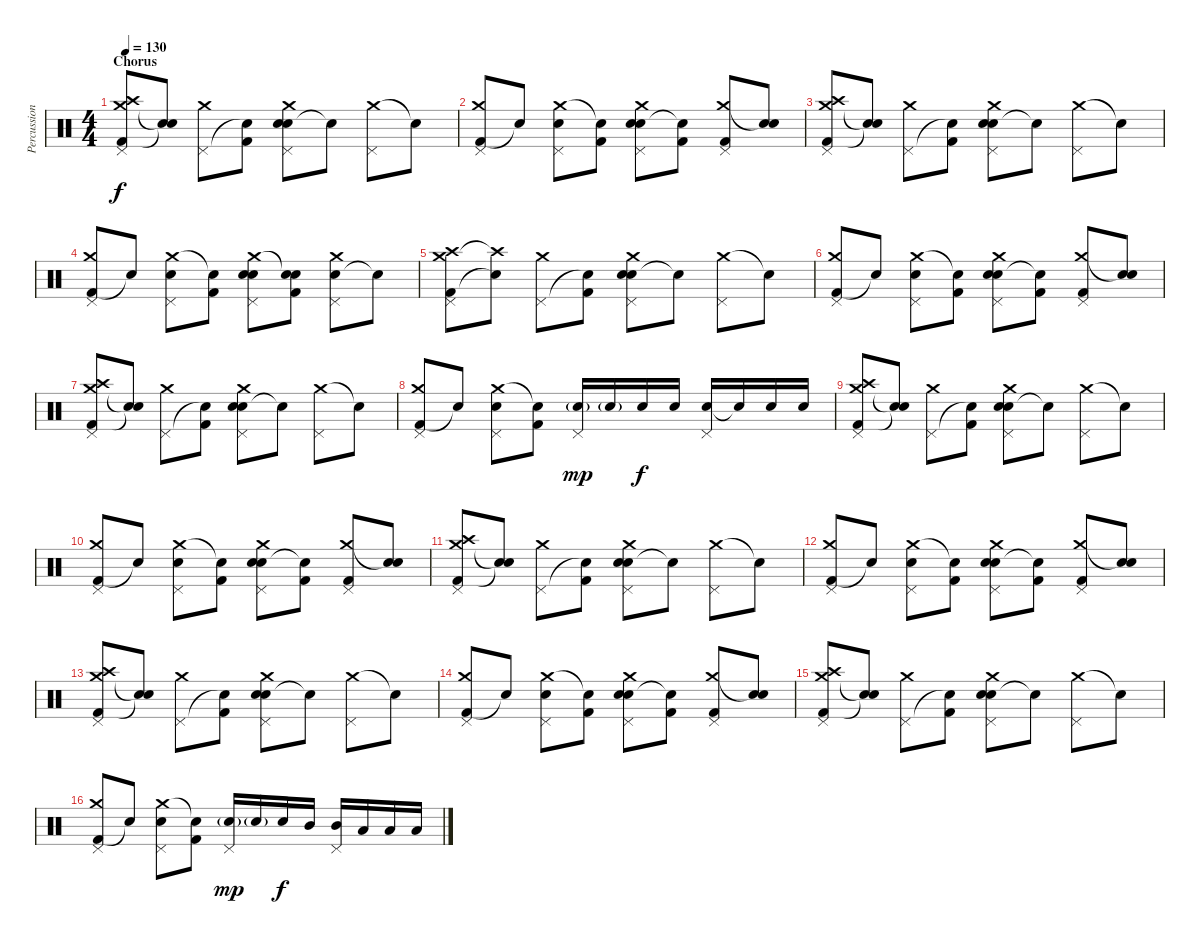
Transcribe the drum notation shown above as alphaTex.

\track ("Percussion" "Percussion") {instrument percussion}
\staff {score}
\articulation defaults
\ts (4 4)
\section ("" "Chorus")
\tempo 130
\clef neutral
\ks c
("Kick (hit) 2" "Crash medium (hit)" "Crash high (hit)" "Pedal Hi-Hat (hit)").8{dy f} ("Snare (hit)"{t} "Snare (hit)"{t}).8 ("Crash medium (hit)" "Pedal Hi-Hat (hit)").8 ("Kick (hit) 2" "Snare (hit)"{t}).8 ("Electric Snare (hit)" "Electric Snare (hit)" "Crash medium (hit)" "Pedal Hi-Hat (hit)").8 "Snare (hit)"{t}.8 ("Crash medium (hit)" "Pedal Hi-Hat (hit)").8 "Snare (hit)"{t}.8 |
("Kick (hit) 2" "Crash medium (hit)" "Pedal Hi-Hat (hit)").8 "Snare (hit)"{t}.8 ("Electric Snare (hit)" "Crash medium (hit)" "Pedal Hi-Hat (hit)").8 ("Kick (hit) 2" "Snare (hit)"{t}).8 ("Electric Snare (hit)" "Electric Snare (hit)" "Crash medium (hit)" "Pedal Hi-Hat (hit)").8 ("Kick (hit) 2" "Snare (hit)"{t}).8 ("Kick (hit) 2" "Crash medium (hit)" "Pedal Hi-Hat (hit)").8 ("Electric Snare (hit)" "Snare (hit)"{t}).8 |
("Kick (hit) 2" "Crash medium (hit)" "Crash high (hit)" "Pedal Hi-Hat (hit)").8 ("Snare (hit)"{t} "Snare (hit)"{t}).8 ("Crash medium (hit)" "Pedal Hi-Hat (hit)").8 ("Kick (hit) 2" "Snare (hit)"{t}).8 ("Electric Snare (hit)" "Electric Snare (hit)" "Crash medium (hit)" "Pedal Hi-Hat (hit)").8 "Snare (hit)"{t}.8 ("Crash medium (hit)" "Pedal Hi-Hat (hit)").8 "Snare (hit)"{t}.8 |
("Kick (hit) 2" "Crash medium (hit)" "Pedal Hi-Hat (hit)").8 "Snare (hit)"{t}.8 ("Electric Snare (hit)" "Crash medium (hit)" "Pedal Hi-Hat (hit)").8 ("Kick (hit) 2" "Snare (hit)"{t}).8 ("Electric Snare (hit)" "Electric Snare (hit)" "Crash medium (hit)" "Pedal Hi-Hat (hit)").8 ("Kick (hit) 2" "Electric Snare (hit)" "Snare (hit)"{t}).8 ("Electric Snare (hit)" "Crash medium (hit)" "Pedal Hi-Hat (hit)").8 "Snare (hit)"{t}.8 |
("Kick (hit) 2" "Crash medium (hit)" "Crash high (hit)" "Pedal Hi-Hat (hit)").8 ("Snare (hit)"{t} "Crash high (hit)"{t}).8 ("Crash medium (hit)" "Pedal Hi-Hat (hit)").8 ("Kick (hit) 2" "Snare (hit)"{t}).8 ("Electric Snare (hit)" "Electric Snare (hit)" "Crash medium (hit)" "Pedal Hi-Hat (hit)").8 "Snare (hit)"{t}.8 ("Crash medium (hit)" "Pedal Hi-Hat (hit)").8 "Snare (hit)"{t}.8 |
("Kick (hit) 2" "Crash medium (hit)" "Pedal Hi-Hat (hit)").8 "Snare (hit)"{t}.8 ("Electric Snare (hit)" "Crash medium (hit)" "Pedal Hi-Hat (hit)").8 ("Kick (hit) 2" "Snare (hit)"{t}).8 ("Electric Snare (hit)" "Electric Snare (hit)" "Crash medium (hit)" "Pedal Hi-Hat (hit)").8 ("Kick (hit) 2" "Snare (hit)"{t}).8 ("Kick (hit) 2" "Crash medium (hit)" "Pedal Hi-Hat (hit)").8 ("Electric Snare (hit)" "Snare (hit)"{t}).8 |
("Kick (hit) 2" "Crash medium (hit)" "Crash high (hit)" "Pedal Hi-Hat (hit)").8 ("Snare (hit)"{t} "Snare (hit)"{t}).8 ("Crash medium (hit)" "Pedal Hi-Hat (hit)").8 ("Kick (hit) 2" "Snare (hit)"{t}).8 ("Electric Snare (hit)" "Electric Snare (hit)" "Crash medium (hit)" "Pedal Hi-Hat (hit)").8 "Snare (hit)"{t}.8 ("Crash medium (hit)" "Pedal Hi-Hat (hit)").8 "Snare (hit)"{t}.8 |
("Kick (hit) 2" "Crash medium (hit)" "Pedal Hi-Hat (hit)").8 "Snare (hit)"{t}.8 ("Electric Snare (hit)" "Crash medium (hit)" "Pedal Hi-Hat (hit)").8 ("Kick (hit) 2" "Snare (hit)"{t}).8 ("Electric Snare (hit)"{g} "Pedal Hi-Hat (hit)").16{dy mp} "Electric Snare (hit)"{g}.16 "Electric Snare (hit)".16{dy f} "Electric Snare (hit)".16 ("Electric Snare (hit)" "Pedal Hi-Hat (hit)").16 "Snare (hit)"{t}.16 "Electric Snare (hit)".16 "Electric Snare (hit)".16 |
("Kick (hit) 2" "Crash medium (hit)" "Crash high (hit)" "Pedal Hi-Hat (hit)").8 ("Snare (hit)"{t} "Snare (hit)"{t}).8 ("Crash medium (hit)" "Pedal Hi-Hat (hit)").8 ("Kick (hit) 2" "Snare (hit)"{t}).8 ("Electric Snare (hit)" "Electric Snare (hit)" "Crash medium (hit)" "Pedal Hi-Hat (hit)").8 "Snare (hit)"{t}.8 ("Crash medium (hit)" "Pedal Hi-Hat (hit)").8 "Snare (hit)"{t}.8 |
("Kick (hit) 2" "Crash medium (hit)" "Pedal Hi-Hat (hit)").8 "Snare (hit)"{t}.8 ("Electric Snare (hit)" "Crash medium (hit)" "Pedal Hi-Hat (hit)").8 ("Kick (hit) 2" "Snare (hit)"{t}).8 ("Electric Snare (hit)" "Electric Snare (hit)" "Crash medium (hit)" "Pedal Hi-Hat (hit)").8 ("Kick (hit) 2" "Snare (hit)"{t}).8 ("Kick (hit) 2" "Crash medium (hit)" "Pedal Hi-Hat (hit)").8 ("Electric Snare (hit)" "Snare (hit)"{t}).8 |
("Kick (hit) 2" "Crash medium (hit)" "Crash high (hit)" "Pedal Hi-Hat (hit)").8 ("Snare (hit)"{t} "Snare (hit)"{t}).8 ("Crash medium (hit)" "Pedal Hi-Hat (hit)").8 ("Kick (hit) 2" "Snare (hit)"{t}).8 ("Electric Snare (hit)" "Electric Snare (hit)" "Crash medium (hit)" "Pedal Hi-Hat (hit)").8 "Snare (hit)"{t}.8 ("Crash medium (hit)" "Pedal Hi-Hat (hit)").8 "Snare (hit)"{t}.8 |
("Kick (hit) 2" "Crash medium (hit)" "Pedal Hi-Hat (hit)").8 "Snare (hit)"{t}.8 ("Electric Snare (hit)" "Crash medium (hit)" "Pedal Hi-Hat (hit)").8 ("Kick (hit) 2" "Snare (hit)"{t}).8 ("Electric Snare (hit)" "Electric Snare (hit)" "Crash medium (hit)" "Pedal Hi-Hat (hit)").8 ("Kick (hit) 2" "Snare (hit)"{t}).8 ("Kick (hit) 2" "Crash medium (hit)" "Pedal Hi-Hat (hit)").8 ("Electric Snare (hit)" "Snare (hit)"{t}).8 |
("Kick (hit) 2" "Crash medium (hit)" "Crash high (hit)" "Pedal Hi-Hat (hit)").8 ("Snare (hit)"{t} "Snare (hit)"{t}).8 ("Crash medium (hit)" "Pedal Hi-Hat (hit)").8 ("Kick (hit) 2" "Snare (hit)"{t}).8 ("Electric Snare (hit)" "Electric Snare (hit)" "Crash medium (hit)" "Pedal Hi-Hat (hit)").8 "Snare (hit)"{t}.8 ("Crash medium (hit)" "Pedal Hi-Hat (hit)").8 "Snare (hit)"{t}.8 |
("Kick (hit) 2" "Crash medium (hit)" "Pedal Hi-Hat (hit)").8 "Snare (hit)"{t}.8 ("Electric Snare (hit)" "Crash medium (hit)" "Pedal Hi-Hat (hit)").8 ("Kick (hit) 2" "Snare (hit)"{t}).8 ("Electric Snare (hit)" "Electric Snare (hit)" "Crash medium (hit)" "Pedal Hi-Hat (hit)").8 ("Kick (hit) 2" "Snare (hit)"{t}).8 ("Kick (hit) 2" "Crash medium (hit)" "Pedal Hi-Hat (hit)").8 ("Electric Snare (hit)" "Snare (hit)"{t}).8 |
("Kick (hit) 2" "Crash medium (hit)" "Crash high (hit)" "Pedal Hi-Hat (hit)").8 ("Snare (hit)"{t} "Snare (hit)"{t}).8 ("Crash medium (hit)" "Pedal Hi-Hat (hit)").8 ("Kick (hit) 2" "Snare (hit)"{t}).8 ("Electric Snare (hit)" "Electric Snare (hit)" "Crash medium (hit)" "Pedal Hi-Hat (hit)").8 "Snare (hit)"{t}.8 ("Crash medium (hit)" "Pedal Hi-Hat (hit)").8 "Snare (hit)"{t}.8 |
("Kick (hit) 2" "Crash medium (hit)" "Pedal Hi-Hat (hit)").8 "Snare (hit)"{t}.8 ("Electric Snare (hit)" "Crash medium (hit)" "Pedal Hi-Hat (hit)").8 ("Kick (hit) 2" "Snare (hit)"{t}).8 ("Electric Snare (hit)"{g} "Pedal Hi-Hat (hit)").16{dy mp} "Electric Snare (hit)"{g}.16 "Electric Snare (hit)".16{dy f} "Mid Tom (hit)".16 ("Mid Tom (hit)" "Pedal Hi-Hat (hit)").16 "Low Tom (hit)".16 "Low Tom (hit)".16 "Low Tom (hit)".16
